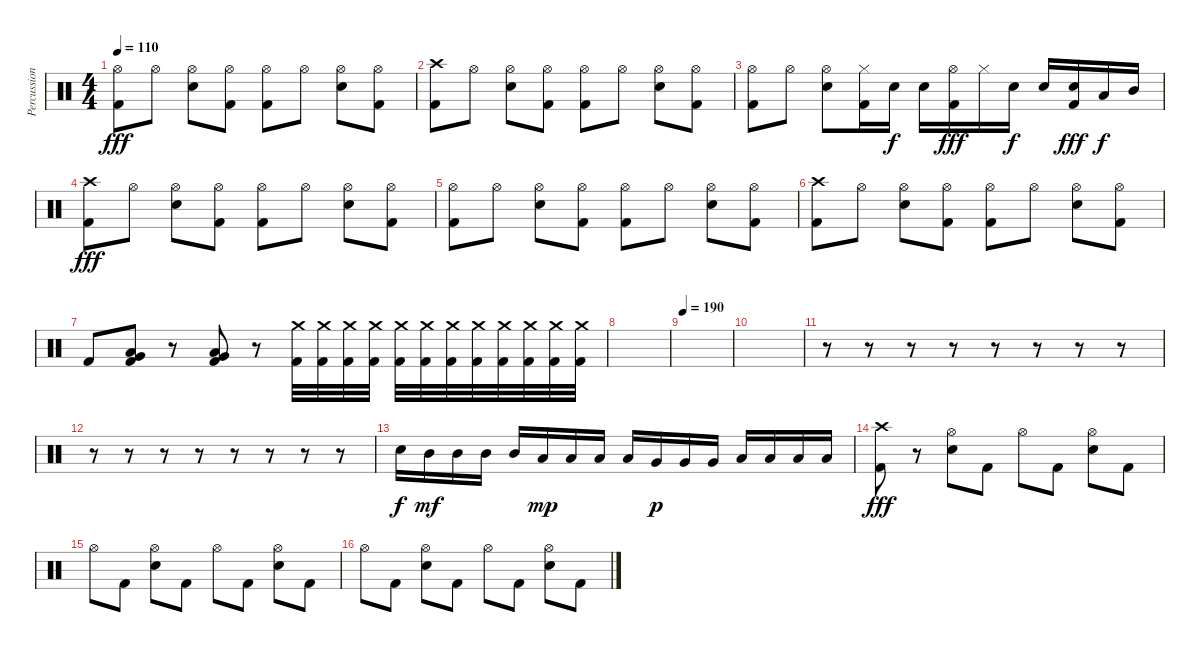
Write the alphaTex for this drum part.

\track ("Percussion" "Percussion") {instrument percussion}
\staff {score}
\articulation defaults
\ts (4 4)
\tempo 110
\clef neutral
\ks c
("Hi-Hat (open)" "Kick (hit) 2").8{dy fff} "Hi-Hat (open)".8 ("Hi-Hat (open)" "Electric Snare (hit)").8 ("Hi-Hat (open)" "Kick (hit) 2").8 ("Hi-Hat (open)" "Kick (hit) 2").8 "Hi-Hat (open)".8 ("Hi-Hat (open)" "Electric Snare (hit)").8 ("Hi-Hat (open)" "Kick (hit) 2").8 |
("Crash high (hit)" "Kick (hit) 2").8 "Hi-Hat (open)".8 ("Hi-Hat (open)" "Electric Snare (hit)").8 ("Hi-Hat (open)" "Kick (hit) 2").8 ("Hi-Hat (open)" "Kick (hit) 2").8 "Hi-Hat (open)".8 ("Hi-Hat (open)" "Electric Snare (hit)").8 ("Hi-Hat (open)" "Kick (hit) 2").8 |
("Hi-Hat (open)" "Kick (hit) 2").8 "Hi-Hat (open)".8 ("Hi-Hat (open)" "Electric Snare (hit)").8 ("Hi-Hat (closed)" "Kick (hit) 2").16 "Electric Snare (hit)".16{dy f} "Electric Snare (hit)".16 ("Hi-Hat (open)" "Kick (hit) 2").16{dy fff} "Hi-Hat (closed)".16 "Electric Snare (hit)".16{dy f} "Electric Snare (hit)".16 ("Electric Snare (hit)" "Kick (hit) 2").16{dy fff} "Low Tom (hit)".16{dy f} "Mid Tom (hit)".16 |
("Crash high (hit)" "Kick (hit) 2").8{dy fff} "Hi-Hat (open)".8 ("Hi-Hat (open)" "Electric Snare (hit)").8 ("Hi-Hat (open)" "Kick (hit) 2").8 ("Hi-Hat (open)" "Kick (hit) 2").8 "Hi-Hat (open)".8 ("Hi-Hat (open)" "Electric Snare (hit)").8 ("Hi-Hat (open)" "Kick (hit) 2").8 |
("Hi-Hat (open)" "Kick (hit) 2").8 "Hi-Hat (open)".8 ("Hi-Hat (open)" "Electric Snare (hit)").8 ("Hi-Hat (open)" "Kick (hit) 2").8 ("Hi-Hat (open)" "Kick (hit) 2").8 "Hi-Hat (open)".8 ("Hi-Hat (open)" "Electric Snare (hit)").8 ("Hi-Hat (open)" "Kick (hit) 2").8 |
("Crash high (hit)" "Kick (hit) 2").8 "Hi-Hat (open)".8 ("Hi-Hat (open)" "Electric Snare (hit)").8 ("Hi-Hat (open)" "Kick (hit) 2").8 ("Hi-Hat (open)" "Kick (hit) 2").8 "Hi-Hat (open)".8 ("Hi-Hat (open)" "Electric Snare (hit)").8 ("Hi-Hat (open)" "Kick (hit) 2").8 |
"Kick (hit) 2".8 ("Very Low Tom (hit)" "Low Floor Tom (hit)" "Kick (hit) 2").8 r.8 ("Low Tom (hit)" "Very Low Tom (hit)" "Kick (hit) 2").8 r.8 ("Crash medium (hit)" "Kick (hit) 2").32 ("Crash medium (hit)" "Kick (hit) 2").32 ("Crash medium (hit)" "Kick (hit) 2").32 ("Crash medium (hit)" "Kick (hit) 2").32 ("Crash medium (hit)" "Kick (hit) 2").32 ("Crash medium (hit)" "Kick (hit) 2").32 ("Crash medium (hit)" "Kick (hit) 2").32 ("Crash medium (hit)" "Kick (hit) 2").32 ("Crash medium (hit)" "Kick (hit) 2").32 ("Crash medium (hit)" "Kick (hit) 2").32 ("Crash medium (hit)" "Kick (hit) 2").32 ("Crash medium (hit)" "Kick (hit) 2").32 |
|
\tempo 190
|
|
r.8 r.8 r.8 r.8 r.8 r.8 r.8 r.8 |
r.8 r.8 r.8 r.8 r.8 r.8 r.8 r.8 |
"Electric Snare (hit)".16{dy f} "Mid Tom (hit)".16{dy mf} "Mid Tom (hit)".16 "Mid Tom (hit)".16 "Mid Tom (hit)".16 "Low Tom (hit)".16{dy mp} "Low Tom (hit)".16 "Low Tom (hit)".16 "Low Tom (hit)".16 "Very Low Tom (hit)".16{dy p} "Very Low Tom (hit)".16 "Very Low Tom (hit)".16 "Low Floor Tom (hit)".16 "Low Floor Tom (hit)".16 "Low Floor Tom (hit)".16 "Low Floor Tom (hit)".16 |
("Crash high (hit)" "Kick (hit) 2").8{dy fff} r.8 ("Hi-Hat (open)" "Electric Snare (hit)").8 "Kick (hit) 2".8 "Hi-Hat (open)".8 "Kick (hit) 2".8 ("Hi-Hat (open)" "Electric Snare (hit)").8 "Kick (hit) 2".8 |
"Hi-Hat (open)".8 "Kick (hit) 2".8 ("Hi-Hat (open)" "Electric Snare (hit)").8 "Kick (hit) 2".8 "Hi-Hat (open)".8 "Kick (hit) 2".8 ("Hi-Hat (open)" "Electric Snare (hit)").8 "Kick (hit) 2".8 |
"Hi-Hat (open)".8 "Kick (hit) 2".8 ("Hi-Hat (open)" "Electric Snare (hit)").8 "Kick (hit) 2".8 "Hi-Hat (open)".8 "Kick (hit) 2".8 ("Hi-Hat (open)" "Electric Snare (hit)").8 "Kick (hit) 2".8
